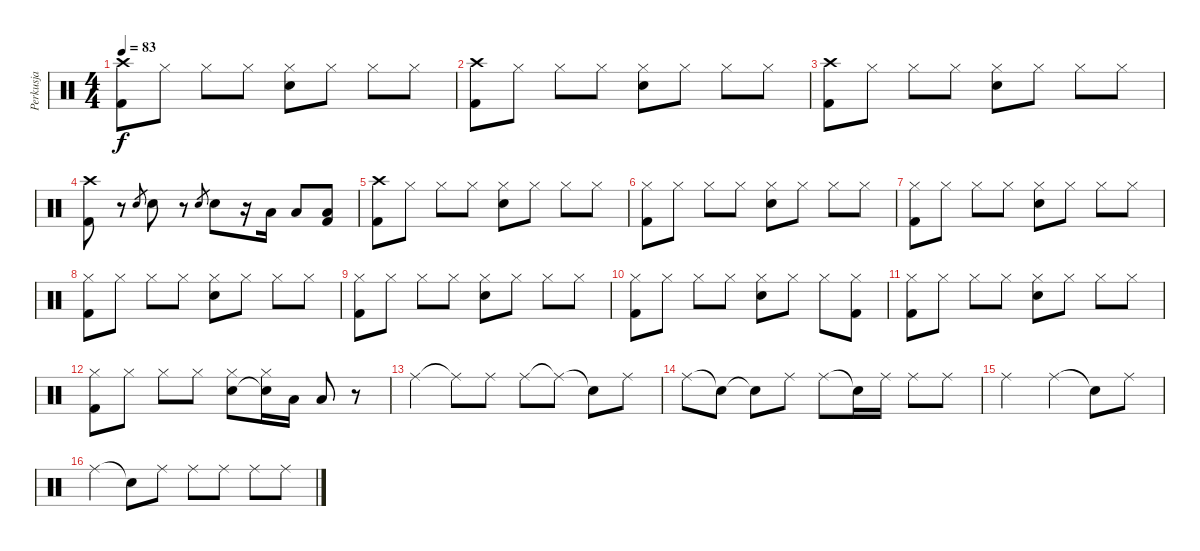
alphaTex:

\track ("Perkusja" "Perkusja") {instrument percussion}
\staff {score}
\articulation defaults
\ts (4 4)
\tempo 83
\clef neutral
\ks c
("Crash high (hit)" "Kick (hit) 2").8{dy f} "Hi-Hat (closed)".8 "Hi-Hat (closed)".8 "Hi-Hat (closed)".8 ("Hi-Hat (closed)" "Snare (hit) 2").8 "Hi-Hat (closed)".8 "Hi-Hat (closed)".8 "Hi-Hat (closed)".8 |
("Crash high (hit)" "Kick (hit) 2").8 "Hi-Hat (closed)".8 "Hi-Hat (closed)".8 "Hi-Hat (closed)".8 ("Hi-Hat (closed)" "Snare (hit) 2").8 "Hi-Hat (closed)".8 "Hi-Hat (closed)".8 "Hi-Hat (closed)".8 |
("Crash high (hit)" "Kick (hit) 2").8 "Hi-Hat (closed)".8 "Hi-Hat (closed)".8 "Hi-Hat (closed)".8 ("Hi-Hat (closed)" "Snare (hit) 2").8 "Hi-Hat (closed)".8 "Hi-Hat (closed)".8 "Hi-Hat (closed)".8 |
("Crash high (hit)" "Kick (hit) 2").8 r.8 "Snare (hit) 2".8{gr} "Snare (hit) 2".8 r.8 "Snare (hit) 2".8{gr} "Snare (hit) 2".8 r.16 "Low Tom (hit)".16 "Low Tom (hit)".8 ("Low Tom (hit)" "Kick (hit) 2").8 |
("Crash high (hit)" "Kick (hit) 2").8 "Hi-Hat (closed)".8 "Hi-Hat (closed)".8 "Hi-Hat (closed)".8 ("Hi-Hat (closed)" "Snare (hit) 2").8 "Hi-Hat (closed)".8 "Hi-Hat (closed)".8 "Hi-Hat (closed)".8 |
("Hi-Hat (closed)" "Kick (hit) 2").8 "Hi-Hat (closed)".8 "Hi-Hat (closed)".8 "Hi-Hat (closed)".8 ("Hi-Hat (closed)" "Snare (hit) 2").8 "Hi-Hat (closed)".8 "Hi-Hat (closed)".8 "Hi-Hat (closed)".8 |
("Hi-Hat (closed)" "Kick (hit) 2").8 "Hi-Hat (closed)".8 "Hi-Hat (closed)".8 "Hi-Hat (closed)".8 ("Hi-Hat (closed)" "Snare (hit) 2").8 "Hi-Hat (closed)".8 "Hi-Hat (closed)".8 "Hi-Hat (closed)".8 |
("Hi-Hat (closed)" "Kick (hit) 2").8 "Hi-Hat (closed)".8 "Hi-Hat (closed)".8 "Hi-Hat (closed)".8 ("Hi-Hat (closed)" "Snare (hit) 2").8 "Hi-Hat (closed)".8 "Hi-Hat (closed)".8 "Hi-Hat (closed)".8 |
("Hi-Hat (closed)" "Kick (hit) 2").8 "Hi-Hat (closed)".8 "Hi-Hat (closed)".8 "Hi-Hat (closed)".8 ("Hi-Hat (closed)" "Snare (hit) 2").8 "Hi-Hat (closed)".8 "Hi-Hat (closed)".8 "Hi-Hat (closed)".8 |
("Hi-Hat (closed)" "Kick (hit) 2").8 "Hi-Hat (closed)".8 "Hi-Hat (closed)".8 "Hi-Hat (closed)".8 ("Hi-Hat (closed)" "Snare (hit) 2").8 "Hi-Hat (closed)".8 "Hi-Hat (closed)".8 ("Hi-Hat (closed)" "Kick (hit) 2").8 |
("Hi-Hat (closed)" "Kick (hit) 2").8 "Hi-Hat (closed)".8 "Hi-Hat (closed)".8 "Hi-Hat (closed)".8 ("Hi-Hat (closed)" "Snare (hit) 2").8 "Hi-Hat (closed)".8 "Hi-Hat (closed)".8 "Hi-Hat (closed)".8 |
("Hi-Hat (closed)" "Kick (hit) 2").8 "Hi-Hat (closed)".8 "Hi-Hat (closed)".8 "Hi-Hat (closed)".8 ("Hi-Hat (closed)" "Snare (hit) 2").8 ("Hi-Hat (closed)" "Snare (hit)"{t}).16 "Low Tom (hit)".16 "Low Tom (hit)".8 r.8 |
"Ride (middle)".4 "Ride (middle)"{t}.8 "Ride (middle)".8 "Ride (middle)".8 "Ride (middle)"{t}.8 "Snare (hit)"{t}.8 "Ride (middle)".8 |
"Ride (middle)".8 "Snare (hit)"{t}.8 "Snare (hit)"{t}.8 "Ride (middle)".8 "Ride (middle)".8 "Snare (hit)"{t}.16 "Ride (middle)".16 "Ride (middle)".8 "Ride (middle)".8 |
"Ride (middle)".2 "Ride (middle)".4 "Snare (hit)"{t}.8 "Ride (middle)".8 |
"Ride (middle)".4 "Snare (hit)"{t}.8 "Ride (middle)".8 "Ride (middle)".8 "Ride (middle)".8 "Ride (middle)".8 "Ride (middle)".8
